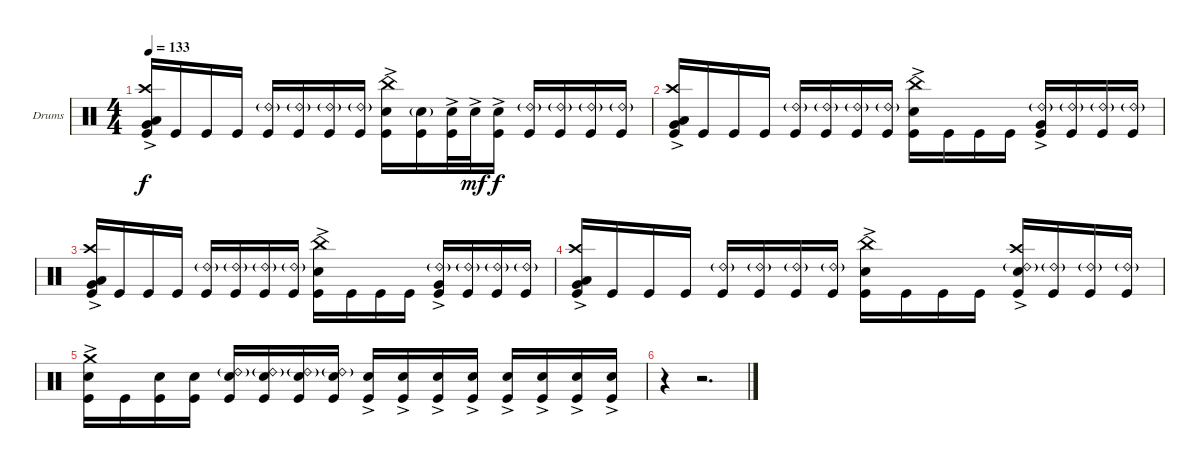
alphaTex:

\bracketExtendMode groupsimilarinstruments
\firstSystemTrackNameOrientation horizontal
\otherSystemsTrackNameOrientation horizontal
\track ("Drumkit" "Drums") {instrument percussion}
\staff {score}
\articulation defaults
\ts (4 4)
\tempo 133
\clef neutral
\ks c
("Kick (hit)" "Crash high (hit)" "Very Low Tom (hit)"{ac} "Low Tom (hit)"{ac}).16{dy f} "Kick (hit)".16 "Kick (hit)".16 "Kick (hit)".16 ("Kick (hit)" "Ride (bell) 2"{g}).16 ("Kick (hit)" "Ride (bell) 2"{g}).16 ("Kick (hit)" "Ride (bell) 2"{g}).16 ("Kick (hit)" "Ride (bell) 2"{g}).16 ("Kick (hit)" "Snare (hit) 2"{ac} "China (hit)"{ac}).16 ("Kick (hit)" "Snare (hit) 2"{g}).16 ("Kick (hit)" "Snare (hit) 2"{ac}).32 "Snare (hit) 2"{ac}.32{dy mf} ("Kick (hit)" "Snare (hit) 2"{ac}).16{dy f} ("Kick (hit)" "Ride (bell) 2"{g}).16 ("Kick (hit)" "Ride (bell) 2"{g}).16 ("Kick (hit)" "Ride (bell) 2"{g}).16 ("Kick (hit)" "Ride (bell) 2"{g}).16 |
("Kick (hit)" "Crash high (hit)" "Very Low Tom (hit)"{ac} "Low Tom (hit)"{ac}).16 "Kick (hit)".16 "Kick (hit)".16 "Kick (hit)".16 ("Kick (hit)" "Ride (bell) 2"{g}).16 ("Kick (hit)" "Ride (bell) 2"{g}).16 ("Kick (hit)" "Ride (bell) 2"{g}).16 ("Kick (hit)" "Ride (bell) 2"{g}).16 ("Kick (hit)" "Snare (hit) 2"{ac} "China (hit)"{ac}).16 "Kick (hit)".16 "Kick (hit)".16 "Kick (hit)".16 ("Kick (hit)" "Ride (bell) 2"{g} "Very Low Tom (hit)"{ac}).16 ("Kick (hit)" "Ride (bell) 2"{g}).16 ("Kick (hit)" "Ride (bell) 2"{g}).16 ("Kick (hit)" "Ride (bell) 2"{g}).16 |
("Kick (hit)" "Crash high (hit)" "Very Low Tom (hit)"{ac} "Low Tom (hit)"{ac}).16 "Kick (hit)".16 "Kick (hit)".16 "Kick (hit)".16 ("Kick (hit)" "Ride (bell) 2"{g}).16 ("Kick (hit)" "Ride (bell) 2"{g}).16 ("Kick (hit)" "Ride (bell) 2"{g}).16 ("Kick (hit)" "Ride (bell) 2"{g}).16 ("Kick (hit)" "Snare (hit) 2"{ac} "China (hit)"{ac}).16 "Kick (hit)".16 "Kick (hit)".16 "Kick (hit)".16 ("Kick (hit)" "Ride (bell) 2"{g} "Very Low Tom (hit)"{ac}).16 ("Kick (hit)" "Ride (bell) 2"{g}).16 ("Kick (hit)" "Ride (bell) 2"{g}).16 ("Kick (hit)" "Ride (bell) 2"{g}).16 |
("Kick (hit)" "Crash high (hit)" "Very Low Tom (hit)"{ac} "Low Tom (hit)"{ac}).16 "Kick (hit)".16 "Kick (hit)".16 "Kick (hit)".16 ("Kick (hit)" "Ride (bell) 2"{g}).16 ("Kick (hit)" "Ride (bell) 2"{g}).16 ("Kick (hit)" "Ride (bell) 2"{g}).16 ("Kick (hit)" "Ride (bell) 2"{g}).16 ("Kick (hit)" "Snare (hit) 2"{ac} "China (hit)"{ac}).16 "Kick (hit)".16 "Kick (hit)".16 "Kick (hit)".16 ("Kick (hit)" "Ride (bell) 2"{g} "Snare (hit) 2"{ac} "Crash high (hit)").16 ("Kick (hit)" "Ride (bell) 2"{g}).16 ("Kick (hit)" "Ride (bell) 2"{g}).16 ("Kick (hit)" "Ride (bell) 2"{g}).16 |
("Kick (hit)" "Snare (hit) 2"{ac} "Crash medium (hit)"{ac}).16 "Kick (hit)".16 ("Kick (hit)" "Snare (hit) 2").16 ("Kick (hit)" "Snare (hit) 2").16 ("Kick (hit)" "Ride (bell) 2"{g} "Snare (hit) 2").16 ("Kick (hit)" "Ride (bell) 2"{g} "Snare (hit) 2").16 ("Kick (hit)" "Ride (bell) 2"{g} "Snare (hit) 2").16 ("Kick (hit)" "Ride (bell) 2"{g} "Snare (hit) 2").16 ("Kick (hit)" "Snare (hit) 2"{ac}).16 ("Kick (hit)" "Snare (hit) 2"{ac}).16 ("Kick (hit)" "Snare (hit) 2"{ac}).16 ("Kick (hit)" "Snare (hit) 2"{ac}).16 ("Kick (hit)" "Snare (hit) 2"{ac}).16 ("Kick (hit)" "Snare (hit) 2"{ac}).16 ("Kick (hit)" "Snare (hit) 2"{ac}).16 ("Kick (hit)" "Snare (hit) 2"{ac}).16 |
r.4 r.2{d}
